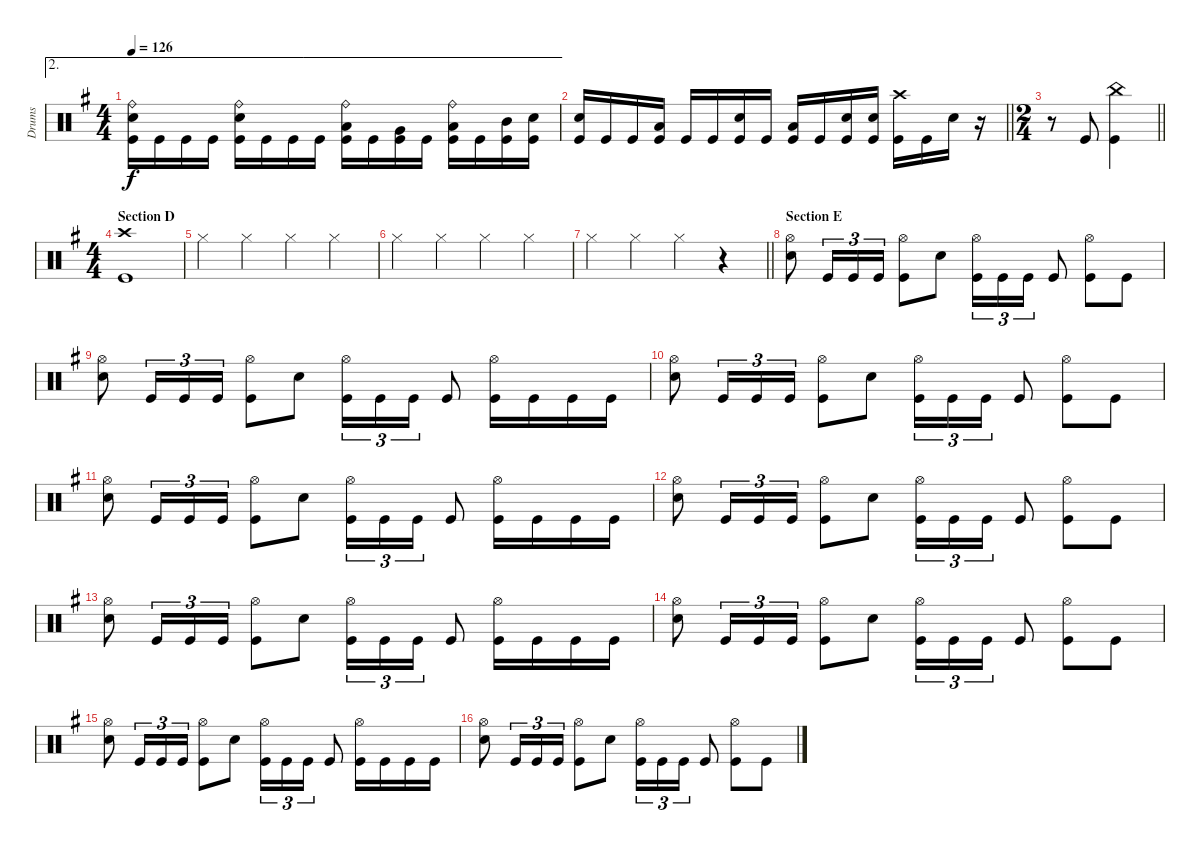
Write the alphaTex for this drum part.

\track ("Drums" "Drums") {instrument percussion}
\staff {score}
\articulation defaults
\ae 2
\ts (4 4)
\tempo 126
\clef neutral
\ks eminor
("Ride (bell)" "Snare (hit) 2" "Kick (hit)").16{dy f} "Kick (hit)".16 "Kick (hit)".16 "Kick (hit)".16 ("Ride (bell)" "Snare (hit) 2" "Kick (hit)").16 "Kick (hit)".16 "Kick (hit)".16 "Kick (hit)".16 ("Ride (bell)" "Low Floor Tom (hit)" "Kick (hit)").16 "Kick (hit)".16 ("Very Low Tom (hit)" "Kick (hit)").16 "Kick (hit)".16 ("Ride (bell)" "Low Tom (hit)" "Kick (hit)").16 "Kick (hit)".16 ("Mid Tom (hit)" "Kick (hit)").16 ("Snare (hit) 2" "Kick (hit)").16 |
\barLineRight lightlight
("Snare (hit) 2" "Kick (hit)").16 "Kick (hit)".16 "Kick (hit)".16 ("Low Floor Tom (hit)" "Kick (hit)").16 "Kick (hit)".16 "Kick (hit)".16 ("Snare (hit) 2" "Kick (hit)").16 "Kick (hit)".16 ("Low Floor Tom (hit)" "Kick (hit)").16 "Kick (hit)".16 ("Snare (hit) 2" "Kick (hit)").16 ("Snare (hit) 2" "Kick (hit)").16 ("Crash high (hit)" "Kick (hit)").16 "Kick (hit)".16 "Snare (hit) 2".16 r.16 |
\ts (2 4)
\barLineRight lightlight
r.8 "Kick (hit)".8 ("China (hit)" "Kick (hit)").4 |
\ts (4 4)
\section ("" "Section D")
("Crash high (hit)" "Kick (hit)").1 |
"Hi-Hat (closed)".4 "Hi-Hat (closed)".4 "Hi-Hat (closed)".4 "Hi-Hat (closed)".4 |
"Hi-Hat (closed)".4 "Hi-Hat (closed)".4 "Hi-Hat (closed)".4 "Hi-Hat (closed)".4 |
\barLineRight lightlight "Hi-Hat (closed)".4 "Hi-Hat (closed)".4 "Hi-Hat (closed)".4
r.4 |
\section ("" "Section E")
("Hi-Hat (open)" "Snare (hit) 2").8 "Kick (hit)".16{tu (3 2)} "Kick (hit)".16{tu (3 2)} "Kick (hit)".16{tu (3 2)} ("Hi-Hat (open)" "Kick (hit)").8 "Snare (hit) 2".8 ("Hi-Hat (open)" "Kick (hit)").16{tu (3 2)} "Kick (hit)".16{tu (3 2)} "Kick (hit)".16{tu (3 2)} "Kick (hit)".8 ("Hi-Hat (open)" "Kick (hit)").8 "Kick (hit)".8 |
("Hi-Hat (open)" "Snare (hit) 2").8 "Kick (hit)".16{tu (3 2)} "Kick (hit)".16{tu (3 2)} "Kick (hit)".16{tu (3 2)} ("Hi-Hat (open)" "Kick (hit)").8 "Snare (hit) 2".8 ("Hi-Hat (open)" "Kick (hit)").16{tu (3 2)} "Kick (hit)".16{tu (3 2)} "Kick (hit)".16{tu (3 2)} "Kick (hit)".8 ("Hi-Hat (open)" "Kick (hit)").16 "Kick (hit)".16 "Kick (hit)".16 "Kick (hit)".16 |
("Hi-Hat (open)" "Snare (hit) 2").8 "Kick (hit)".16{tu (3 2)} "Kick (hit)".16{tu (3 2)} "Kick (hit)".16{tu (3 2)} ("Hi-Hat (open)" "Kick (hit)").8 "Snare (hit) 2".8 ("Hi-Hat (open)" "Kick (hit)").16{tu (3 2)} "Kick (hit)".16{tu (3 2)} "Kick (hit)".16{tu (3 2)} "Kick (hit)".8 ("Hi-Hat (open)" "Kick (hit)").8 "Kick (hit)".8 |
("Hi-Hat (open)" "Snare (hit) 2").8 "Kick (hit)".16{tu (3 2)} "Kick (hit)".16{tu (3 2)} "Kick (hit)".16{tu (3 2)} ("Hi-Hat (open)" "Kick (hit)").8 "Snare (hit) 2".8 ("Hi-Hat (open)" "Kick (hit)").16{tu (3 2)} "Kick (hit)".16{tu (3 2)} "Kick (hit)".16{tu (3 2)} "Kick (hit)".8 ("Hi-Hat (open)" "Kick (hit)").16 "Kick (hit)".16 "Kick (hit)".16 "Kick (hit)".16 |
("Hi-Hat (open)" "Snare (hit) 2").8 "Kick (hit)".16{tu (3 2)} "Kick (hit)".16{tu (3 2)} "Kick (hit)".16{tu (3 2)} ("Hi-Hat (open)" "Kick (hit)").8 "Snare (hit) 2".8 ("Hi-Hat (open)" "Kick (hit)").16{tu (3 2)} "Kick (hit)".16{tu (3 2)} "Kick (hit)".16{tu (3 2)} "Kick (hit)".8 ("Hi-Hat (open)" "Kick (hit)").8 "Kick (hit)".8 |
("Hi-Hat (open)" "Snare (hit) 2").8 "Kick (hit)".16{tu (3 2)} "Kick (hit)".16{tu (3 2)} "Kick (hit)".16{tu (3 2)} ("Hi-Hat (open)" "Kick (hit)").8 "Snare (hit) 2".8 ("Hi-Hat (open)" "Kick (hit)").16{tu (3 2)} "Kick (hit)".16{tu (3 2)} "Kick (hit)".16{tu (3 2)} "Kick (hit)".8 ("Hi-Hat (open)" "Kick (hit)").16 "Kick (hit)".16 "Kick (hit)".16 "Kick (hit)".16 |
("Hi-Hat (open)" "Snare (hit) 2").8 "Kick (hit)".16{tu (3 2)} "Kick (hit)".16{tu (3 2)} "Kick (hit)".16{tu (3 2)} ("Hi-Hat (open)" "Kick (hit)").8 "Snare (hit) 2".8 ("Hi-Hat (open)" "Kick (hit)").16{tu (3 2)} "Kick (hit)".16{tu (3 2)} "Kick (hit)".16{tu (3 2)} "Kick (hit)".8 ("Hi-Hat (open)" "Kick (hit)").8 "Kick (hit)".8 |
("Hi-Hat (open)" "Snare (hit) 2").8 "Kick (hit)".16{tu (3 2)} "Kick (hit)".16{tu (3 2)} "Kick (hit)".16{tu (3 2)} ("Hi-Hat (open)" "Kick (hit)").8 "Snare (hit) 2".8 ("Hi-Hat (open)" "Kick (hit)").16{tu (3 2)} "Kick (hit)".16{tu (3 2)} "Kick (hit)".16{tu (3 2)} "Kick (hit)".8 ("Hi-Hat (open)" "Kick (hit)").16 "Kick (hit)".16 "Kick (hit)".16 "Kick (hit)".16 |
("Hi-Hat (open)" "Snare (hit) 2").8 "Kick (hit)".16{tu (3 2)} "Kick (hit)".16{tu (3 2)} "Kick (hit)".16{tu (3 2)} ("Hi-Hat (open)" "Kick (hit)").8 "Snare (hit) 2".8 ("Hi-Hat (open)" "Kick (hit)").16{tu (3 2)} "Kick (hit)".16{tu (3 2)} "Kick (hit)".16{tu (3 2)} "Kick (hit)".8 ("Hi-Hat (open)" "Kick (hit)").8 "Kick (hit)".8
